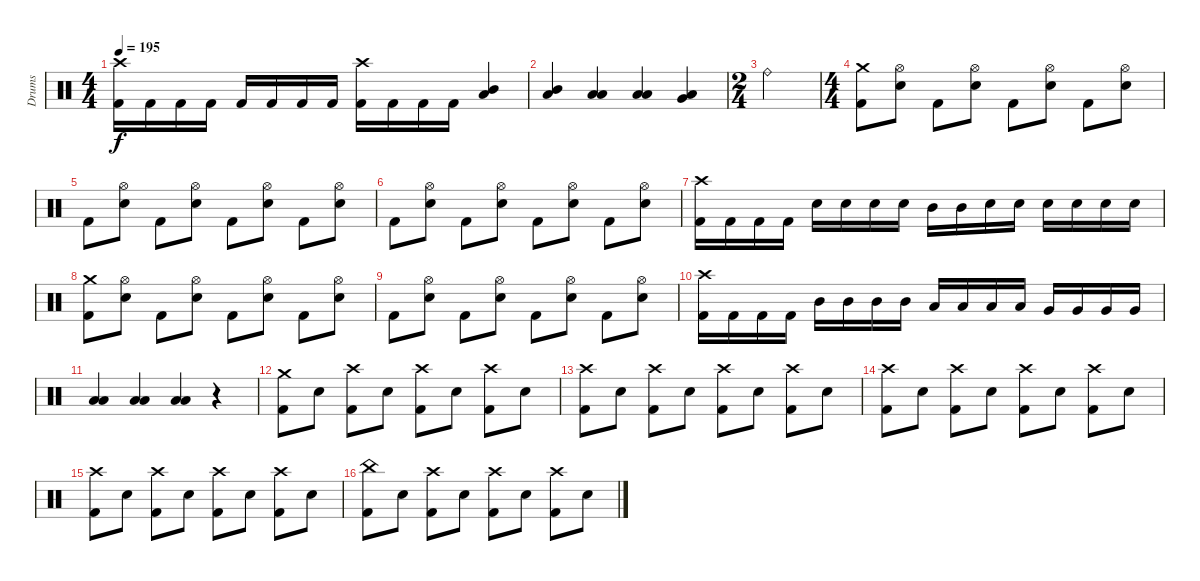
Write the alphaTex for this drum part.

\track ("Drums" "Drums") {instrument percussion}
\staff {score}
\articulation defaults
\ts (4 4)
\tempo 195
\clef neutral
\ks c
("Crash high (hit)" "Kick (hit) 2").16{dy f} "Kick (hit) 2".16 "Kick (hit) 2".16 "Kick (hit) 2".16 "Kick (hit) 2".16 "Kick (hit) 2".16 "Kick (hit) 2".16 "Kick (hit) 2".16 ("Crash high (hit)" "Kick (hit) 2").16 "Kick (hit) 2".16 "Kick (hit) 2".16 "Kick (hit) 2".16 ("Mid Tom (hit)" "Low Floor Tom (hit)").4 |
("Mid Tom (hit)" "Low Floor Tom (hit)").4 ("Low Tom (hit)" "Low Floor Tom (hit)").4 ("Low Tom (hit)" "Low Floor Tom (hit)").4 ("Very Low Tom (hit)" "Low Floor Tom (hit)").4 |
\ts (2 4)
"Ride (bell)".2 |
\ts (4 4)
("Crash medium (hit)" "Kick (hit) 2").8 ("Hi-Hat (open)" "Snare (hit) 2").8 "Kick (hit) 2".8 ("Hi-Hat (open)" "Snare (hit) 2").8 "Kick (hit) 2".8 ("Hi-Hat (open)" "Snare (hit) 2").8 "Kick (hit) 2".8 ("Hi-Hat (open)" "Snare (hit) 2").8 |
"Kick (hit) 2".8 ("Hi-Hat (open)" "Snare (hit) 2").8 "Kick (hit) 2".8 ("Hi-Hat (open)" "Snare (hit) 2").8 "Kick (hit) 2".8 ("Hi-Hat (open)" "Snare (hit) 2").8 "Kick (hit) 2".8 ("Hi-Hat (open)" "Snare (hit) 2").8 |
"Kick (hit) 2".8 ("Hi-Hat (open)" "Snare (hit) 2").8 "Kick (hit) 2".8 ("Hi-Hat (open)" "Snare (hit) 2").8 "Kick (hit) 2".8 ("Hi-Hat (open)" "Snare (hit) 2").8 "Kick (hit) 2".8 ("Hi-Hat (open)" "Snare (hit) 2").8 |
("Crash high (hit)" "Kick (hit) 2").16 "Kick (hit) 2".16 "Kick (hit) 2".16 "Kick (hit) 2".16 "Snare (hit) 2".16 "Snare (hit) 2".16 "Snare (hit) 2".16 "Snare (hit) 2".16 "Mid Tom (hit)".16 "Mid Tom (hit)".16 "Snare (hit) 2".16 "Snare (hit) 2".16 "Snare (hit) 2".16 "Snare (hit) 2".16 "Snare (hit) 2".16 "Snare (hit) 2".16 |
("Crash medium (hit)" "Kick (hit) 2").8 ("Hi-Hat (open)" "Snare (hit) 2").8 "Kick (hit) 2".8 ("Hi-Hat (open)" "Snare (hit) 2").8 "Kick (hit) 2".8 ("Hi-Hat (open)" "Snare (hit) 2").8 "Kick (hit) 2".8 ("Hi-Hat (open)" "Snare (hit) 2").8 |
"Kick (hit) 2".8 ("Hi-Hat (open)" "Snare (hit) 2").8 "Kick (hit) 2".8 ("Hi-Hat (open)" "Snare (hit) 2").8 "Kick (hit) 2".8 ("Hi-Hat (open)" "Snare (hit) 2").8 "Kick (hit) 2".8 ("Hi-Hat (open)" "Snare (hit) 2").8 |
("Crash high (hit)" "Kick (hit) 2").16 "Kick (hit) 2".16 "Kick (hit) 2".16 "Kick (hit) 2".16 "Mid Tom (hit)".16 "Mid Tom (hit)".16 "Mid Tom (hit)".16 "Mid Tom (hit)".16 "Low Tom (hit)".16 "Low Tom (hit)".16 "Low Tom (hit)".16 "Low Tom (hit)".16 "Very Low Tom (hit)".16 "Very Low Tom (hit)".16 "Very Low Tom (hit)".16 "Very Low Tom (hit)".16 |
("Low Tom (hit)" "Low Floor Tom (hit)").4 ("Low Tom (hit)" "Low Floor Tom (hit)").4 ("Low Tom (hit)" "Low Floor Tom (hit)").4 r.4 |
("Crash medium (hit)" "Kick (hit) 2").8 "Snare (hit) 2".8 ("Crash high (hit)" "Kick (hit) 2").8 "Snare (hit) 2".8 ("Crash high (hit)" "Kick (hit) 2").8 "Snare (hit) 2".8 ("Crash high (hit)" "Kick (hit) 2").8 "Snare (hit) 2".8 |
("Crash high (hit)" "Kick (hit) 2").8 "Snare (hit) 2".8 ("Crash high (hit)" "Kick (hit) 2").8 "Snare (hit) 2".8 ("Crash high (hit)" "Kick (hit) 2").8 "Snare (hit) 2".8 ("Crash high (hit)" "Kick (hit) 2").8 "Snare (hit) 2".8 |
("Crash high (hit)" "Kick (hit) 2").8 "Snare (hit) 2".8 ("Crash high (hit)" "Kick (hit) 2").8 "Snare (hit) 2".8 ("Crash high (hit)" "Kick (hit) 2").8 "Snare (hit) 2".8 ("Crash high (hit)" "Kick (hit) 2").8 "Snare (hit) 2".8 |
("Crash high (hit)" "Kick (hit) 2").8 "Snare (hit) 2".8 ("Crash high (hit)" "Kick (hit) 2").8 "Snare (hit) 2".8 ("Crash high (hit)" "Kick (hit) 2").8 "Snare (hit) 2".8 ("Crash high (hit)" "Kick (hit) 2").8 "Snare (hit) 2".8 |
("China (hit)" "Kick (hit) 2").8 "Snare (hit) 2".8 ("Crash high (hit)" "Kick (hit) 2").8 "Snare (hit) 2".8 ("Crash high (hit)" "Kick (hit) 2").8 "Snare (hit) 2".8 ("Crash high (hit)" "Kick (hit) 2").8 "Snare (hit) 2".8
